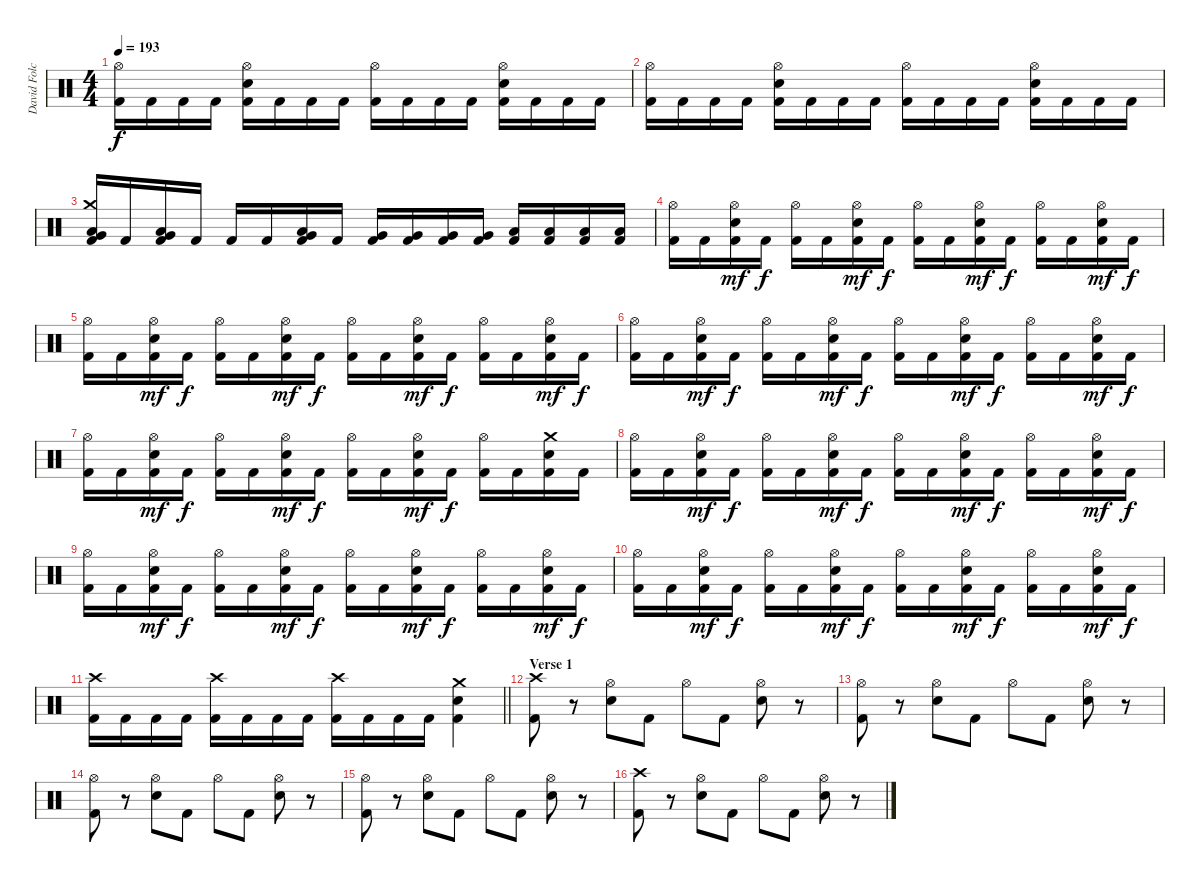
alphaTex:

\track ("David Folchitto (Drums)" "David Folc") {instrument percussion}
\staff {score}
\articulation defaults
\ts (4 4)
\tempo 193
\clef neutral
\ks c
("Hi-Hat (open)" "Kick (hit) 2").16{dy f} "Kick (hit) 2".16 "Kick (hit) 2".16 "Kick (hit) 2".16 ("Hi-Hat (open)" "Snare (hit) 2" "Kick (hit) 2").16 "Kick (hit) 2".16 "Kick (hit) 2".16 "Kick (hit) 2".16 ("Hi-Hat (open)" "Kick (hit) 2").16 "Kick (hit) 2".16 "Kick (hit) 2".16 "Kick (hit) 2".16 ("Hi-Hat (open)" "Snare (hit) 2" "Kick (hit) 2").16 "Kick (hit) 2".16 "Kick (hit) 2".16 "Kick (hit) 2".16 |
("Hi-Hat (open)" "Kick (hit) 2").16 "Kick (hit) 2".16 "Kick (hit) 2".16 "Kick (hit) 2".16 ("Hi-Hat (open)" "Snare (hit) 2" "Kick (hit) 2").16 "Kick (hit) 2".16 "Kick (hit) 2".16 "Kick (hit) 2".16 ("Hi-Hat (open)" "Kick (hit) 2").16 "Kick (hit) 2".16 "Kick (hit) 2".16 "Kick (hit) 2".16 ("Hi-Hat (open)" "Snare (hit) 2" "Kick (hit) 2").16 "Kick (hit) 2".16 "Kick (hit) 2".16 "Kick (hit) 2".16 |
("Crash medium (hit)" "Low Tom (hit)" "Very Low Tom (hit)" "Kick (hit) 2").16 "Kick (hit) 2".16 ("Low Tom (hit)" "Very Low Tom (hit)" "Kick (hit) 2").16 "Kick (hit) 2".16 "Kick (hit) 2".16 "Kick (hit) 2".16 ("Low Tom (hit)" "Very Low Tom (hit)" "Kick (hit) 2").16 "Kick (hit) 2".16 ("Very Low Tom (hit)" "Kick (hit) 2").16 ("Very Low Tom (hit)" "Kick (hit) 2").16 ("Very Low Tom (hit)" "Kick (hit) 2").16 ("Very Low Tom (hit)" "Kick (hit) 2").16 ("Low Floor Tom (hit)" "Kick (hit) 2").16 ("Low Floor Tom (hit)" "Kick (hit) 2").16 ("Low Floor Tom (hit)" "Kick (hit) 2").16 ("Low Floor Tom (hit)" "Kick (hit) 2").16 |
("Hi-Hat (open)" "Kick (hit) 2").16 "Kick (hit) 2".16 ("Hi-Hat (open)" "Snare (hit) 2" "Kick (hit) 2").16{dy mf} "Kick (hit) 2".16{dy f} ("Hi-Hat (open)" "Kick (hit) 2").16 "Kick (hit) 2".16 ("Hi-Hat (open)" "Snare (hit) 2" "Kick (hit) 2").16{dy mf} "Kick (hit) 2".16{dy f} ("Hi-Hat (open)" "Kick (hit) 2").16 "Kick (hit) 2".16 ("Hi-Hat (open)" "Snare (hit) 2" "Kick (hit) 2").16{dy mf} "Kick (hit) 2".16{dy f} ("Hi-Hat (open)" "Kick (hit) 2").16 "Kick (hit) 2".16 ("Hi-Hat (open)" "Snare (hit) 2" "Kick (hit) 2").16{dy mf} "Kick (hit) 2".16{dy f} |
("Hi-Hat (open)" "Kick (hit) 2").16 "Kick (hit) 2".16 ("Hi-Hat (open)" "Snare (hit) 2" "Kick (hit) 2").16{dy mf} "Kick (hit) 2".16{dy f} ("Hi-Hat (open)" "Kick (hit) 2").16 "Kick (hit) 2".16 ("Hi-Hat (open)" "Snare (hit) 2" "Kick (hit) 2").16{dy mf} "Kick (hit) 2".16{dy f} ("Hi-Hat (open)" "Kick (hit) 2").16 "Kick (hit) 2".16 ("Hi-Hat (open)" "Snare (hit) 2" "Kick (hit) 2").16{dy mf} "Kick (hit) 2".16{dy f} ("Hi-Hat (open)" "Kick (hit) 2").16 "Kick (hit) 2".16 ("Hi-Hat (open)" "Snare (hit) 2" "Kick (hit) 2").16{dy mf} "Kick (hit) 2".16{dy f} |
("Hi-Hat (open)" "Kick (hit) 2").16 "Kick (hit) 2".16 ("Hi-Hat (open)" "Snare (hit) 2" "Kick (hit) 2").16{dy mf} "Kick (hit) 2".16{dy f} ("Hi-Hat (open)" "Kick (hit) 2").16 "Kick (hit) 2".16 ("Hi-Hat (open)" "Snare (hit) 2" "Kick (hit) 2").16{dy mf} "Kick (hit) 2".16{dy f} ("Hi-Hat (open)" "Kick (hit) 2").16 "Kick (hit) 2".16 ("Hi-Hat (open)" "Snare (hit) 2" "Kick (hit) 2").16{dy mf} "Kick (hit) 2".16{dy f} ("Hi-Hat (open)" "Kick (hit) 2").16 "Kick (hit) 2".16 ("Hi-Hat (open)" "Snare (hit) 2" "Kick (hit) 2").16{dy mf} "Kick (hit) 2".16{dy f} |
("Hi-Hat (open)" "Kick (hit) 2").16 "Kick (hit) 2".16 ("Hi-Hat (open)" "Snare (hit) 2" "Kick (hit) 2").16{dy mf} "Kick (hit) 2".16{dy f} ("Hi-Hat (open)" "Kick (hit) 2").16 "Kick (hit) 2".16 ("Hi-Hat (open)" "Snare (hit) 2" "Kick (hit) 2").16{dy mf} "Kick (hit) 2".16{dy f} ("Hi-Hat (open)" "Kick (hit) 2").16 "Kick (hit) 2".16 ("Hi-Hat (open)" "Snare (hit) 2" "Kick (hit) 2").16{dy mf} "Kick (hit) 2".16{dy f} ("Hi-Hat (open)" "Kick (hit) 2").16 "Kick (hit) 2".16 ("Crash medium (hit)" "Snare (hit) 2" "Kick (hit) 2").16 "Kick (hit) 2".16 |
("Hi-Hat (open)" "Kick (hit) 2").16 "Kick (hit) 2".16 ("Hi-Hat (open)" "Snare (hit) 2" "Kick (hit) 2").16{dy mf} "Kick (hit) 2".16{dy f} ("Hi-Hat (open)" "Kick (hit) 2").16 "Kick (hit) 2".16 ("Hi-Hat (open)" "Snare (hit) 2" "Kick (hit) 2").16{dy mf} "Kick (hit) 2".16{dy f} ("Hi-Hat (open)" "Kick (hit) 2").16 "Kick (hit) 2".16 ("Hi-Hat (open)" "Snare (hit) 2" "Kick (hit) 2").16{dy mf} "Kick (hit) 2".16{dy f} ("Hi-Hat (open)" "Kick (hit) 2").16 "Kick (hit) 2".16 ("Hi-Hat (open)" "Snare (hit) 2" "Kick (hit) 2").16{dy mf} "Kick (hit) 2".16{dy f} |
("Hi-Hat (open)" "Kick (hit) 2").16 "Kick (hit) 2".16 ("Hi-Hat (open)" "Snare (hit) 2" "Kick (hit) 2").16{dy mf} "Kick (hit) 2".16{dy f} ("Hi-Hat (open)" "Kick (hit) 2").16 "Kick (hit) 2".16 ("Hi-Hat (open)" "Snare (hit) 2" "Kick (hit) 2").16{dy mf} "Kick (hit) 2".16{dy f} ("Hi-Hat (open)" "Kick (hit) 2").16 "Kick (hit) 2".16 ("Hi-Hat (open)" "Snare (hit) 2" "Kick (hit) 2").16{dy mf} "Kick (hit) 2".16{dy f} ("Hi-Hat (open)" "Kick (hit) 2").16 "Kick (hit) 2".16 ("Hi-Hat (open)" "Snare (hit) 2" "Kick (hit) 2").16{dy mf} "Kick (hit) 2".16{dy f} |
("Hi-Hat (open)" "Kick (hit) 2").16 "Kick (hit) 2".16 ("Hi-Hat (open)" "Snare (hit) 2" "Kick (hit) 2").16{dy mf} "Kick (hit) 2".16{dy f} ("Hi-Hat (open)" "Kick (hit) 2").16 "Kick (hit) 2".16 ("Hi-Hat (open)" "Snare (hit) 2" "Kick (hit) 2").16{dy mf} "Kick (hit) 2".16{dy f} ("Hi-Hat (open)" "Kick (hit) 2").16 "Kick (hit) 2".16 ("Hi-Hat (open)" "Snare (hit) 2" "Kick (hit) 2").16{dy mf} "Kick (hit) 2".16{dy f} ("Hi-Hat (open)" "Kick (hit) 2").16 "Kick (hit) 2".16 ("Hi-Hat (open)" "Snare (hit) 2" "Kick (hit) 2").16{dy mf} "Kick (hit) 2".16{dy f} |
\barLineRight lightlight
("Crash high (hit)" "Kick (hit) 2").16 "Kick (hit) 2".16 "Kick (hit) 2".16 "Kick (hit) 2".16 ("Crash high (hit)" "Kick (hit) 2").16 "Kick (hit) 2".16 "Kick (hit) 2".16 "Kick (hit) 2".16 ("Crash high (hit)" "Kick (hit) 2").16 "Kick (hit) 2".16 "Kick (hit) 2".16 "Kick (hit) 2".16 ("Crash medium (hit)" "Snare (hit) 2" "Kick (hit) 2").4 |
\section ("" "Verse 1")
("Crash high (hit)" "Kick (hit) 2").8 r.8 ("Hi-Hat (open)" "Snare (hit) 2").8 "Kick (hit) 2".8 "Hi-Hat (open)".8 "Kick (hit) 2".8 ("Hi-Hat (open)" "Snare (hit) 2").8 r.8 |
("Hi-Hat (open)" "Kick (hit) 2").8 r.8 ("Hi-Hat (open)" "Snare (hit) 2").8 "Kick (hit) 2".8 "Hi-Hat (open)".8 "Kick (hit) 2".8 ("Hi-Hat (open)" "Snare (hit) 2").8 r.8 |
("Hi-Hat (open)" "Kick (hit) 2").8 r.8 ("Hi-Hat (open)" "Snare (hit) 2").8 "Kick (hit) 2".8 "Hi-Hat (open)".8 "Kick (hit) 2".8 ("Hi-Hat (open)" "Snare (hit) 2").8 r.8 |
("Hi-Hat (open)" "Kick (hit) 2").8 r.8 ("Hi-Hat (open)" "Snare (hit) 2").8 "Kick (hit) 2".8 "Hi-Hat (open)".8 "Kick (hit) 2".8 ("Hi-Hat (open)" "Snare (hit) 2").8 r.8 |
("Crash high (hit)" "Kick (hit) 2").8 r.8 ("Hi-Hat (open)" "Snare (hit) 2").8 "Kick (hit) 2".8 "Hi-Hat (open)".8 "Kick (hit) 2".8 ("Hi-Hat (open)" "Snare (hit) 2").8 r.8
